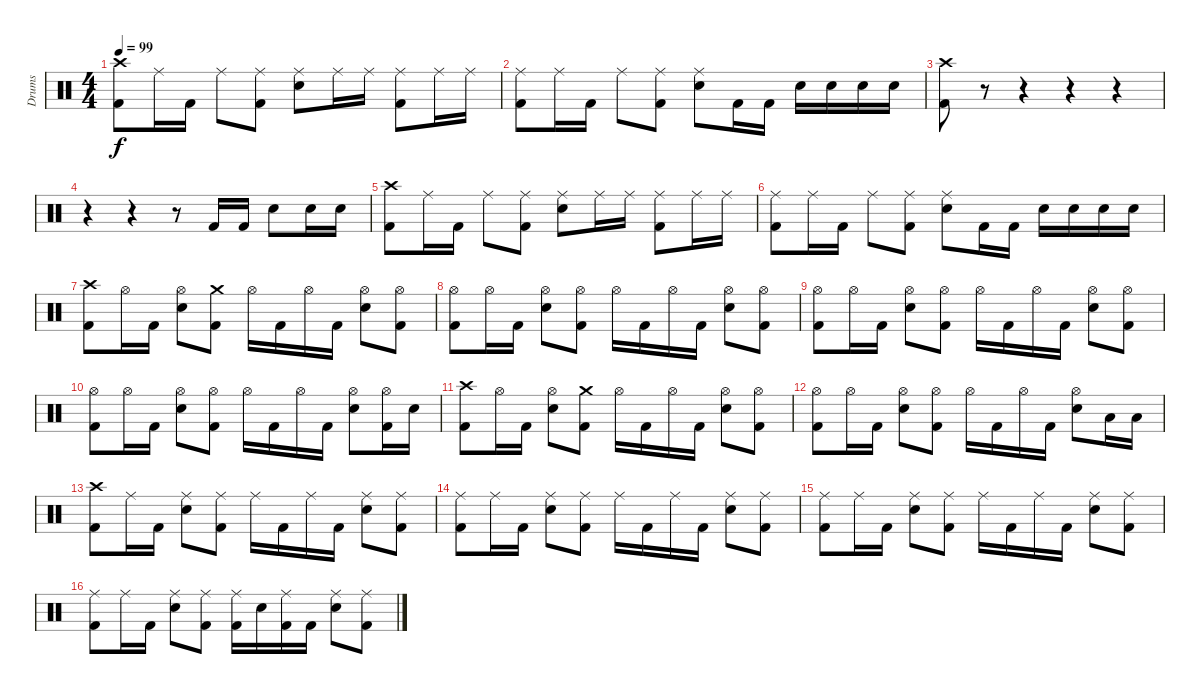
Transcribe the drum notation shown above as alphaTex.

\track ("Drums" "Drums") {instrument percussion}
\staff {score}
\articulation defaults
\ts (4 4)
\tempo 99
\clef neutral
\ks c
("Crash high (hit)" "Kick (hit) 2").8{dy f} "Ride (middle)".16 "Kick (hit) 2".16 "Ride (middle)".8 ("Ride (middle)" "Kick (hit) 2").8 ("Ride (middle)" "Snare (hit) 2").8 "Ride (middle)".16 "Ride (middle)".16 ("Ride (middle)" "Kick (hit) 2").8 "Ride (middle)".16 "Ride (middle)".16 |
("Ride (middle)" "Kick (hit) 2").8 "Ride (middle)".16 "Kick (hit) 2".16 "Ride (middle)".8 ("Ride (middle)" "Kick (hit) 2").8 ("Ride (middle)" "Snare (hit) 2").8 "Kick (hit) 2".16 "Kick (hit) 2".16 "Snare (hit) 2".16 "Snare (hit) 2".16 "Snare (hit) 2".16 "Snare (hit) 2".16 |
("Crash high (hit)" "Kick (hit) 2").8 r.8 r.4 r.4 r.4 |
r.4 r.4 r.8 "Kick (hit) 2".16 "Kick (hit) 2".16 "Snare (hit) 2".8 "Snare (hit) 2".16 "Snare (hit) 2".16 |
("Crash high (hit)" "Kick (hit) 2").8 "Ride (middle)".16 "Kick (hit) 2".16 "Ride (middle)".8 ("Ride (middle)" "Kick (hit) 2").8 ("Ride (middle)" "Snare (hit) 2").8 "Ride (middle)".16 "Ride (middle)".16 ("Ride (middle)" "Kick (hit) 2").8 "Ride (middle)".16 "Ride (middle)".16 |
("Ride (middle)" "Kick (hit) 2").8 "Ride (middle)".16 "Kick (hit) 2".16 "Ride (middle)".8 ("Ride (middle)" "Kick (hit) 2").8 ("Ride (middle)" "Snare (hit) 2").8 "Kick (hit) 2".16 "Kick (hit) 2".16 "Snare (hit) 2".16 "Snare (hit) 2".16 "Snare (hit) 2".16 "Snare (hit) 2".16 |
("Crash high (hit)" "Kick (hit) 2").8 "Hi-Hat (open)".16 "Kick (hit) 2".16 ("Hi-Hat (open)" "Snare (hit) 2").8 ("Crash medium (hit)" "Kick (hit) 2").8 "Hi-Hat (open)".16 "Kick (hit) 2".16 "Hi-Hat (open)".16 "Kick (hit) 2".16 ("Hi-Hat (open)" "Snare (hit) 2").8 ("Hi-Hat (open)" "Kick (hit) 2").8 |
("Hi-Hat (open)" "Kick (hit) 2").8 "Hi-Hat (open)".16 "Kick (hit) 2".16 ("Hi-Hat (open)" "Snare (hit) 2").8 ("Hi-Hat (open)" "Kick (hit) 2").8 "Hi-Hat (open)".16 "Kick (hit) 2".16 "Hi-Hat (open)".16 "Kick (hit) 2".16 ("Hi-Hat (open)" "Snare (hit) 2").8 ("Hi-Hat (open)" "Kick (hit) 2").8 |
("Hi-Hat (open)" "Kick (hit) 2").8 "Hi-Hat (open)".16 "Kick (hit) 2".16 ("Hi-Hat (open)" "Snare (hit) 2").8 ("Hi-Hat (open)" "Kick (hit) 2").8 "Hi-Hat (open)".16 "Kick (hit) 2".16 "Hi-Hat (open)".16 "Kick (hit) 2".16 ("Hi-Hat (open)" "Snare (hit) 2").8 ("Hi-Hat (open)" "Kick (hit) 2").8 |
("Hi-Hat (open)" "Kick (hit) 2").8 "Hi-Hat (open)".16 "Kick (hit) 2".16 ("Hi-Hat (open)" "Snare (hit) 2").8 ("Hi-Hat (open)" "Kick (hit) 2").8 "Hi-Hat (open)".16 "Kick (hit) 2".16 "Hi-Hat (open)".16 "Kick (hit) 2".16 ("Hi-Hat (open)" "Snare (hit) 2").8 ("Hi-Hat (open)" "Kick (hit) 2").16 "Snare (hit) 2".16 |
("Crash high (hit)" "Kick (hit) 2").8 "Hi-Hat (open)".16 "Kick (hit) 2".16 ("Hi-Hat (open)" "Snare (hit) 2").8 ("Crash medium (hit)" "Kick (hit) 2").8 "Hi-Hat (open)".16 "Kick (hit) 2".16 "Hi-Hat (open)".16 "Kick (hit) 2".16 ("Hi-Hat (open)" "Snare (hit) 2").8 ("Hi-Hat (open)" "Kick (hit) 2").8 |
("Hi-Hat (open)" "Kick (hit) 2").8 "Hi-Hat (open)".16 "Kick (hit) 2".16 ("Hi-Hat (open)" "Snare (hit) 2").8 ("Hi-Hat (open)" "Kick (hit) 2").8 "Hi-Hat (open)".16 "Kick (hit) 2".16 "Hi-Hat (open)".16 "Kick (hit) 2".16 ("Hi-Hat (open)" "Snare (hit) 2").8 "Low Tom (hit)".16 "Low Tom (hit)".16 |
("Crash high (hit)" "Kick (hit) 2").8 "Ride (middle)".16 "Kick (hit) 2".16 ("Ride (middle)" "Snare (hit) 2").8 ("Ride (middle)" "Kick (hit) 2").8 "Ride (middle)".16 "Kick (hit) 2".16 "Ride (middle)".16 "Kick (hit) 2".16 ("Ride (middle)" "Snare (hit) 2").8 ("Ride (middle)" "Kick (hit) 2").8 |
("Ride (middle)" "Kick (hit) 2").8 "Ride (middle)".16 "Kick (hit) 2".16 ("Ride (middle)" "Snare (hit) 2").8 ("Ride (middle)" "Kick (hit) 2").8 "Ride (middle)".16 "Kick (hit) 2".16 "Ride (middle)".16 "Kick (hit) 2".16 ("Ride (middle)" "Snare (hit) 2").8 ("Ride (middle)" "Kick (hit) 2").8 |
("Ride (middle)" "Kick (hit) 2").8 "Ride (middle)".16 "Kick (hit) 2".16 ("Ride (middle)" "Snare (hit) 2").8 ("Ride (middle)" "Kick (hit) 2").8 "Ride (middle)".16 "Kick (hit) 2".16 "Ride (middle)".16 "Kick (hit) 2".16 ("Ride (middle)" "Snare (hit) 2").8 ("Ride (middle)" "Kick (hit) 2").8 |
("Ride (middle)" "Kick (hit) 2").8 "Ride (middle)".16 "Kick (hit) 2".16 ("Ride (middle)" "Snare (hit) 2").8 ("Ride (middle)" "Kick (hit) 2").8 ("Ride (middle)" "Kick (hit) 2").16 "Snare (hit) 2".16 ("Ride (middle)" "Kick (hit) 2").16 "Kick (hit) 2".16 ("Ride (middle)" "Snare (hit) 2").8 ("Ride (middle)" "Kick (hit) 2").8
